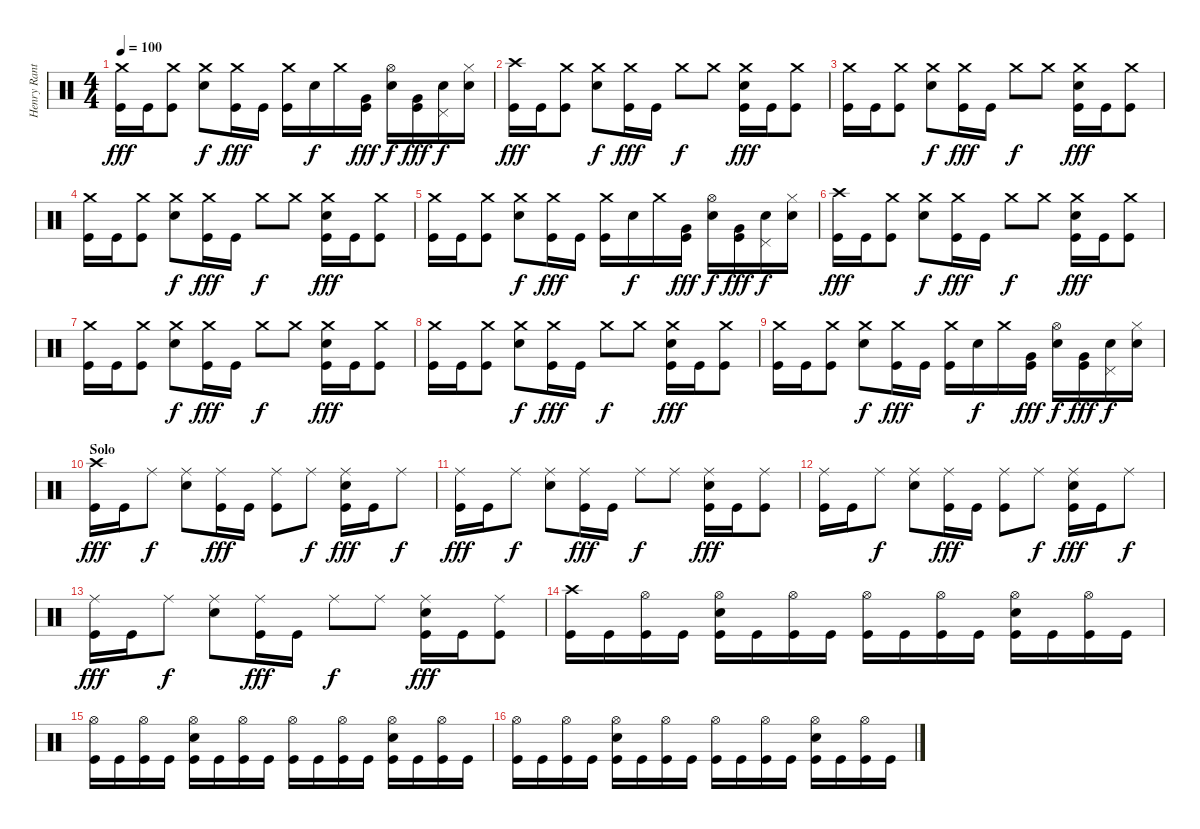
\track ("Henry Ranta" "Henry Rant") {instrument percussion}
\staff {score}
\articulation defaults
\ts (4 4)
\tempo 100
\clef neutral
\ks c
("Crash medium (hit)" "Kick (hit)").16{dy fff} "Kick (hit)".16 ("Crash medium (hit)" "Kick (hit)").8 ("Crash medium (hit)" "Electric Snare (hit)").8{dy f} ("Crash medium (hit)" "Kick (hit)").16{dy fff} "Kick (hit)".16 ("Crash medium (hit)" "Kick (hit)").16 "Electric Snare (hit)".16{dy f} "Crash medium (hit)".16 ("Very Low Tom (hit)" "Kick (hit)").16{dy fff} ("Hi-Hat (open)" "Electric Snare (hit)").16{dy f} ("Very Low Tom (hit)" "Kick (hit)").16{dy fff} ("Pedal Hi-Hat (hit)" "Electric Snare (hit)").16{dy f} ("Hi-Hat (closed)" "Electric Snare (hit)").16 |
("Crash high (hit)" "Kick (hit)").16{dy fff} "Kick (hit)".16 ("Crash medium (hit)" "Kick (hit)").8 ("Crash medium (hit)" "Electric Snare (hit)").8{dy f} ("Crash medium (hit)" "Kick (hit)").16{dy fff} "Kick (hit)".16 "Crash medium (hit)".8{dy f} "Crash medium (hit)".8 ("Crash medium (hit)" "Electric Snare (hit)" "Kick (hit)").16{dy fff} "Kick (hit)".16 ("Crash medium (hit)" "Kick (hit)").8 |
("Crash medium (hit)" "Kick (hit)").16 "Kick (hit)".16 ("Crash medium (hit)" "Kick (hit)").8 ("Crash medium (hit)" "Electric Snare (hit)").8{dy f} ("Crash medium (hit)" "Kick (hit)").16{dy fff} "Kick (hit)".16 "Crash medium (hit)".8{dy f} "Crash medium (hit)".8 ("Crash medium (hit)" "Electric Snare (hit)" "Kick (hit)").16{dy fff} "Kick (hit)".16 ("Crash medium (hit)" "Kick (hit)").8 |
("Crash medium (hit)" "Kick (hit)").16 "Kick (hit)".16 ("Crash medium (hit)" "Kick (hit)").8 ("Crash medium (hit)" "Electric Snare (hit)").8{dy f} ("Crash medium (hit)" "Kick (hit)").16{dy fff} "Kick (hit)".16 "Crash medium (hit)".8{dy f} "Crash medium (hit)".8 ("Crash medium (hit)" "Electric Snare (hit)" "Kick (hit)").16{dy fff} "Kick (hit)".16 ("Crash medium (hit)" "Kick (hit)").8 |
("Crash medium (hit)" "Kick (hit)").16 "Kick (hit)".16 ("Crash medium (hit)" "Kick (hit)").8 ("Crash medium (hit)" "Electric Snare (hit)").8{dy f} ("Crash medium (hit)" "Kick (hit)").16{dy fff} "Kick (hit)".16 ("Crash medium (hit)" "Kick (hit)").16 "Electric Snare (hit)".16{dy f} "Crash medium (hit)".16 ("Very Low Tom (hit)" "Kick (hit)").16{dy fff} ("Hi-Hat (open)" "Electric Snare (hit)").16{dy f} ("Very Low Tom (hit)" "Kick (hit)").16{dy fff} ("Pedal Hi-Hat (hit)" "Electric Snare (hit)").16{dy f} ("Hi-Hat (closed)" "Electric Snare (hit)").16 |
("Crash high (hit)" "Kick (hit)").16{dy fff} "Kick (hit)".16 ("Crash medium (hit)" "Kick (hit)").8 ("Crash medium (hit)" "Electric Snare (hit)").8{dy f} ("Crash medium (hit)" "Kick (hit)").16{dy fff} "Kick (hit)".16 "Crash medium (hit)".8{dy f} "Crash medium (hit)".8 ("Crash medium (hit)" "Electric Snare (hit)" "Kick (hit)").16{dy fff} "Kick (hit)".16 ("Crash medium (hit)" "Kick (hit)").8 |
("Crash medium (hit)" "Kick (hit)").16 "Kick (hit)".16 ("Crash medium (hit)" "Kick (hit)").8 ("Crash medium (hit)" "Electric Snare (hit)").8{dy f} ("Crash medium (hit)" "Kick (hit)").16{dy fff} "Kick (hit)".16 "Crash medium (hit)".8{dy f} "Crash medium (hit)".8 ("Crash medium (hit)" "Electric Snare (hit)" "Kick (hit)").16{dy fff} "Kick (hit)".16 ("Crash medium (hit)" "Kick (hit)").8 |
("Crash medium (hit)" "Kick (hit)").16 "Kick (hit)".16 ("Crash medium (hit)" "Kick (hit)").8 ("Crash medium (hit)" "Electric Snare (hit)").8{dy f} ("Crash medium (hit)" "Kick (hit)").16{dy fff} "Kick (hit)".16 "Crash medium (hit)".8{dy f} "Crash medium (hit)".8 ("Crash medium (hit)" "Electric Snare (hit)" "Kick (hit)").16{dy fff} "Kick (hit)".16 ("Crash medium (hit)" "Kick (hit)").8 |
("Crash medium (hit)" "Kick (hit)").16 "Kick (hit)".16 ("Crash medium (hit)" "Kick (hit)").8 ("Crash medium (hit)" "Electric Snare (hit)").8{dy f} ("Crash medium (hit)" "Kick (hit)").16{dy fff} "Kick (hit)".16 ("Crash medium (hit)" "Kick (hit)").16 "Electric Snare (hit)".16{dy f} "Crash medium (hit)".16 ("Very Low Tom (hit)" "Kick (hit)").16{dy fff} ("Hi-Hat (open)" "Electric Snare (hit)").16{dy f} ("Very Low Tom (hit)" "Kick (hit)").16{dy fff} ("Pedal Hi-Hat (hit)" "Electric Snare (hit)").16{dy f} ("Hi-Hat (closed)" "Electric Snare (hit)").16 |
\section ("" "Solo")
("Crash high (hit)" "Kick (hit)").16{dy fff} "Kick (hit)".16 "Ride (middle)".8{dy f} ("Ride (middle)" "Electric Snare (hit)").8 ("Ride (middle)" "Kick (hit)").16{dy fff} "Kick (hit)".16 ("Ride (middle)" "Kick (hit)").8 "Ride (middle)".8{dy f} ("Ride (middle)" "Electric Snare (hit)" "Kick (hit)").16{dy fff} "Kick (hit)".16 "Ride (middle)".8{dy f} |
("Ride (middle)" "Kick (hit)").16{dy fff} "Kick (hit)".16 "Ride (middle)".8{dy f} ("Ride (middle)" "Electric Snare (hit)").8 ("Ride (middle)" "Kick (hit)").16{dy fff} "Kick (hit)".16 "Ride (middle)".8{dy f} "Ride (middle)".8 ("Ride (middle)" "Electric Snare (hit)" "Kick (hit)").16{dy fff} "Kick (hit)".16 ("Ride (middle)" "Kick (hit)").8 |
("Ride (middle)" "Kick (hit)").16 "Kick (hit)".16 "Ride (middle)".8{dy f} ("Ride (middle)" "Electric Snare (hit)").8 ("Ride (middle)" "Kick (hit)").16{dy fff} "Kick (hit)".16 ("Ride (middle)" "Kick (hit)").8 "Ride (middle)".8{dy f} ("Ride (middle)" "Electric Snare (hit)" "Kick (hit)").16{dy fff} "Kick (hit)".16 "Ride (middle)".8{dy f} |
("Ride (middle)" "Kick (hit)").16{dy fff} "Kick (hit)".16 "Ride (middle)".8{dy f} ("Ride (middle)" "Electric Snare (hit)").8 ("Ride (middle)" "Kick (hit)").16{dy fff} "Kick (hit)".16 "Ride (middle)".8{dy f} "Ride (middle)".8 ("Ride (middle)" "Electric Snare (hit)" "Kick (hit)").16{dy fff} "Kick (hit)".16 ("Ride (middle)" "Kick (hit)").8 |
("Crash high (hit)" "Kick (hit)").16 "Kick (hit)".16 ("Hi-Hat (open)" "Kick (hit)").16 "Kick (hit)".16 ("Hi-Hat (open)" "Electric Snare (hit)" "Kick (hit)").16 "Kick (hit)".16 ("Hi-Hat (open)" "Kick (hit)").16 "Kick (hit)".16 ("Hi-Hat (open)" "Kick (hit)").16 "Kick (hit)".16 ("Hi-Hat (open)" "Kick (hit)").16 "Kick (hit)".16 ("Hi-Hat (open)" "Electric Snare (hit)" "Kick (hit)").16 "Kick (hit)".16 ("Hi-Hat (open)" "Kick (hit)").16 "Kick (hit)".16 |
("Hi-Hat (open)" "Kick (hit)").16 "Kick (hit)".16 ("Hi-Hat (open)" "Kick (hit)").16 "Kick (hit)".16 ("Hi-Hat (open)" "Electric Snare (hit)" "Kick (hit)").16 "Kick (hit)".16 ("Hi-Hat (open)" "Kick (hit)").16 "Kick (hit)".16 ("Hi-Hat (open)" "Kick (hit)").16 "Kick (hit)".16 ("Hi-Hat (open)" "Kick (hit)").16 "Kick (hit)".16 ("Hi-Hat (open)" "Electric Snare (hit)" "Kick (hit)").16 "Kick (hit)".16 ("Hi-Hat (open)" "Kick (hit)").16 "Kick (hit)".16 |
("Hi-Hat (open)" "Kick (hit)").16 "Kick (hit)".16 ("Hi-Hat (open)" "Kick (hit)").16 "Kick (hit)".16 ("Hi-Hat (open)" "Electric Snare (hit)" "Kick (hit)").16 "Kick (hit)".16 ("Hi-Hat (open)" "Kick (hit)").16 "Kick (hit)".16 ("Hi-Hat (open)" "Kick (hit)").16 "Kick (hit)".16 ("Hi-Hat (open)" "Kick (hit)").16 "Kick (hit)".16 ("Hi-Hat (open)" "Electric Snare (hit)" "Kick (hit)").16 "Kick (hit)".16 ("Hi-Hat (open)" "Kick (hit)").16 "Kick (hit)".16
